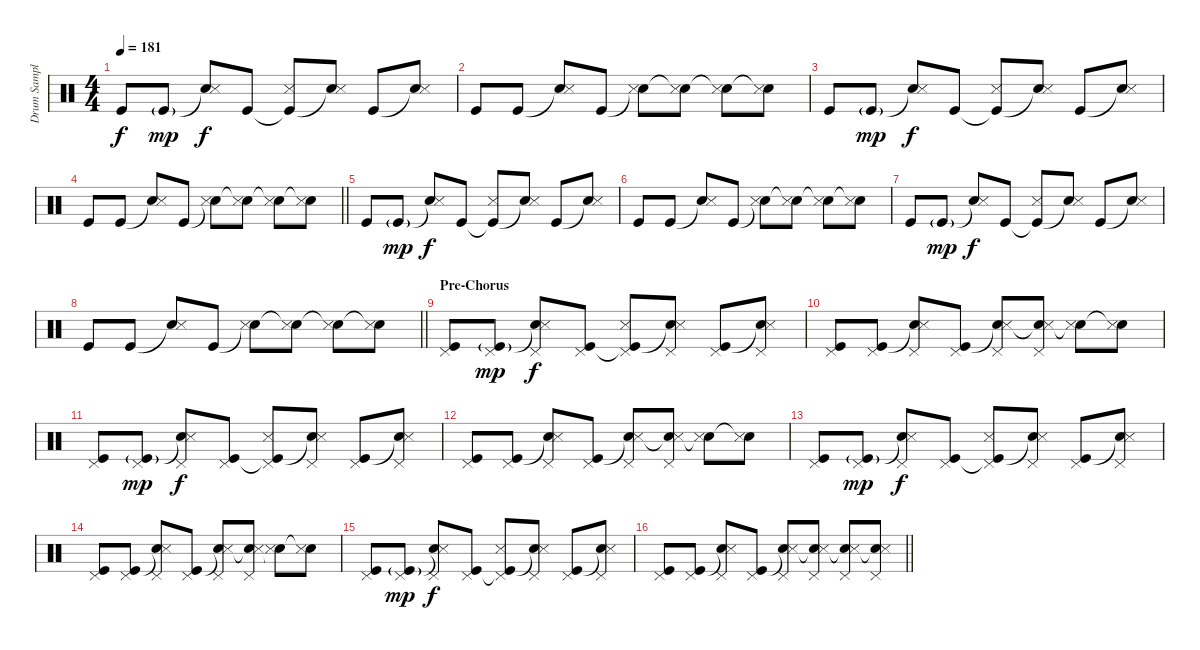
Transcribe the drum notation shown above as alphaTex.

\track ("Drum Sample" "Drum Sampl") {instrument percussion}
\staff {score}
\articulation defaults
\ts (4 4)
\tempo 181
\clef neutral
\ks c "Kick (hit)".8{dy f} "Kick (hit)"{g}.8{dy mp}
("Snare (hit)"{t} "Snare (side stick) 3").8{dy f} "Kick (hit)".8 ("Kick (hit)"{t} "Metronome (hit)").8 ("Snare (hit)"{t} "Snare (side stick) 3").8 "Kick (hit)".8 ("Snare (hit)"{t} "Snare (side stick) 3").8 |
"Kick (hit)".8 "Kick (hit)".8 ("Snare (hit)"{t} "Snare (side stick) 3").8 "Kick (hit)".8 ("Snare (hit)"{t} "Metronome (hit)").8 ("Snare (hit)"{t} "Metronome (hit)").8 ("Snare (hit)"{t} "Snare (side stick) 3").8 ("Snare (hit)"{t} "Snare (side stick) 3").8 |
"Kick (hit)".8 "Kick (hit)"{g}.8{dy mp} ("Snare (hit)"{t} "Snare (side stick) 3").8{dy f} "Kick (hit)".8 ("Kick (hit)"{t} "Metronome (hit)").8 ("Snare (hit)"{t} "Snare (side stick) 3").8 "Kick (hit)".8 ("Snare (hit)"{t} "Snare (side stick) 3").8 |
\barLineRight lightlight "Kick (hit)".8 "Kick (hit)".8
("Snare (hit)"{t} "Snare (side stick) 3").8 "Kick (hit)".8 ("Snare (hit)"{t} "Metronome (hit)").8 ("Snare (hit)"{t} "Metronome (hit)").8 ("Snare (hit)"{t} "Snare (side stick) 3").8 ("Snare (hit)"{t} "Snare (side stick) 3").8 |
"Kick (hit)".8 "Kick (hit)"{g}.8{dy mp} ("Snare (hit)"{t} "Snare (side stick) 3").8{dy f} "Kick (hit)".8 ("Kick (hit)"{t} "Metronome (hit)").8 ("Snare (hit)"{t} "Snare (side stick) 3").8 "Kick (hit)".8 ("Snare (hit)"{t} "Snare (side stick) 3").8 |
"Kick (hit)".8 "Kick (hit)".8 ("Snare (hit)"{t} "Snare (side stick) 3").8 "Kick (hit)".8 ("Snare (hit)"{t} "Metronome (hit)").8 ("Snare (hit)"{t} "Metronome (hit)").8 ("Snare (hit)"{t} "Snare (side stick) 3").8 ("Snare (hit)"{t} "Snare (side stick) 3").8 |
"Kick (hit)".8 "Kick (hit)"{g}.8{dy mp} ("Snare (hit)"{t} "Snare (side stick) 3").8{dy f} "Kick (hit)".8 ("Kick (hit)"{t} "Metronome (hit)").8 ("Snare (hit)"{t} "Snare (side stick) 3").8 "Kick (hit)".8 ("Snare (hit)"{t} "Snare (side stick) 3").8 |
\barLineRight lightlight "Kick (hit)".8 "Kick (hit)".8
("Snare (hit)"{t} "Snare (side stick) 3").8 "Kick (hit)".8 ("Snare (hit)"{t} "Metronome (hit)").8 ("Snare (hit)"{t} "Metronome (hit)").8 ("Snare (hit)"{t} "Snare (side stick) 3").8 ("Snare (hit)"{t} "Snare (side stick) 3").8 |
\section ("" "Pre-Chorus")
("Kick (hit)" "Pedal Hi-Hat (hit)").8 ("Kick (hit)"{g} "Pedal Hi-Hat (hit)").8{dy mp} ("Snare (hit)"{t} "Snare (side stick) 3" "Pedal Hi-Hat (hit)").8{dy f} ("Kick (hit)" "Pedal Hi-Hat (hit)").8 ("Kick (hit)"{t} "Metronome (hit)" "Pedal Hi-Hat (hit)").8 ("Snare (hit)"{t} "Snare (side stick) 3" "Pedal Hi-Hat (hit)").8 ("Kick (hit)" "Pedal Hi-Hat (hit)").8 ("Snare (hit)"{t} "Snare (side stick) 3" "Pedal Hi-Hat (hit)").8 |
("Kick (hit)" "Pedal Hi-Hat (hit)").8 ("Kick (hit)" "Pedal Hi-Hat (hit)").8 ("Snare (hit)"{t} "Snare (side stick) 3" "Pedal Hi-Hat (hit)").8 ("Kick (hit)" "Pedal Hi-Hat (hit)").8 ("Snare (hit)"{t} "Metronome (hit)" "Pedal Hi-Hat (hit)").8 ("Snare (hit)"{t} "Metronome (hit)" "Pedal Hi-Hat (hit)").8 ("Snare (hit)"{t} "Snare (side stick) 3").8 ("Snare (hit)"{t} "Snare (side stick) 3").8 |
("Kick (hit)" "Pedal Hi-Hat (hit)").8 ("Kick (hit)"{g} "Pedal Hi-Hat (hit)").8{dy mp} ("Snare (hit)"{t} "Snare (side stick) 3" "Pedal Hi-Hat (hit)").8{dy f} ("Kick (hit)" "Pedal Hi-Hat (hit)").8 ("Kick (hit)"{t} "Metronome (hit)" "Pedal Hi-Hat (hit)").8 ("Snare (hit)"{t} "Snare (side stick) 3" "Pedal Hi-Hat (hit)").8 ("Kick (hit)" "Pedal Hi-Hat (hit)").8 ("Snare (hit)"{t} "Snare (side stick) 3" "Pedal Hi-Hat (hit)").8 |
("Kick (hit)" "Pedal Hi-Hat (hit)").8 ("Kick (hit)" "Pedal Hi-Hat (hit)").8 ("Snare (hit)"{t} "Snare (side stick) 3" "Pedal Hi-Hat (hit)").8 ("Kick (hit)" "Pedal Hi-Hat (hit)").8 ("Snare (hit)"{t} "Metronome (hit)" "Pedal Hi-Hat (hit)").8 ("Snare (hit)"{t} "Metronome (hit)" "Pedal Hi-Hat (hit)").8 ("Snare (hit)"{t} "Snare (side stick) 3").8 ("Snare (hit)"{t} "Snare (side stick) 3").8 |
("Kick (hit)" "Pedal Hi-Hat (hit)").8 ("Kick (hit)"{g} "Pedal Hi-Hat (hit)").8{dy mp} ("Snare (hit)"{t} "Snare (side stick) 3" "Pedal Hi-Hat (hit)").8{dy f} ("Kick (hit)" "Pedal Hi-Hat (hit)").8 ("Kick (hit)"{t} "Metronome (hit)" "Pedal Hi-Hat (hit)").8 ("Snare (hit)"{t} "Snare (side stick) 3" "Pedal Hi-Hat (hit)").8 ("Kick (hit)" "Pedal Hi-Hat (hit)").8 ("Snare (hit)"{t} "Snare (side stick) 3" "Pedal Hi-Hat (hit)").8 |
("Kick (hit)" "Pedal Hi-Hat (hit)").8 ("Kick (hit)" "Pedal Hi-Hat (hit)").8 ("Snare (hit)"{t} "Snare (side stick) 3" "Pedal Hi-Hat (hit)").8 ("Kick (hit)" "Pedal Hi-Hat (hit)").8 ("Snare (hit)"{t} "Metronome (hit)" "Pedal Hi-Hat (hit)").8 ("Snare (hit)"{t} "Metronome (hit)" "Pedal Hi-Hat (hit)").8 ("Snare (hit)"{t} "Snare (side stick) 3").8 ("Snare (hit)"{t} "Snare (side stick) 3").8 |
("Kick (hit)" "Pedal Hi-Hat (hit)").8 ("Kick (hit)"{g} "Pedal Hi-Hat (hit)").8{dy mp} ("Snare (hit)"{t} "Snare (side stick) 3" "Pedal Hi-Hat (hit)").8{dy f} ("Kick (hit)" "Pedal Hi-Hat (hit)").8 ("Kick (hit)"{t} "Metronome (hit)" "Pedal Hi-Hat (hit)").8 ("Snare (hit)"{t} "Snare (side stick) 3" "Pedal Hi-Hat (hit)").8 ("Kick (hit)" "Pedal Hi-Hat (hit)").8 ("Snare (hit)"{t} "Snare (side stick) 3" "Pedal Hi-Hat (hit)").8 |
\barLineRight lightlight
("Kick (hit)" "Pedal Hi-Hat (hit)").8 ("Kick (hit)" "Pedal Hi-Hat (hit)").8 ("Snare (hit)"{t} "Snare (side stick) 3" "Pedal Hi-Hat (hit)").8 ("Kick (hit)" "Pedal Hi-Hat (hit)").8 ("Snare (hit)"{t} "Metronome (hit)" "Pedal Hi-Hat (hit)").8 ("Snare (hit)"{t} "Metronome (hit)" "Pedal Hi-Hat (hit)").8 ("Snare (hit)"{t} "Snare (side stick) 3" "Pedal Hi-Hat (hit)").8 ("Snare (hit)"{t} "Snare (side stick) 3" "Pedal Hi-Hat (hit)").8
